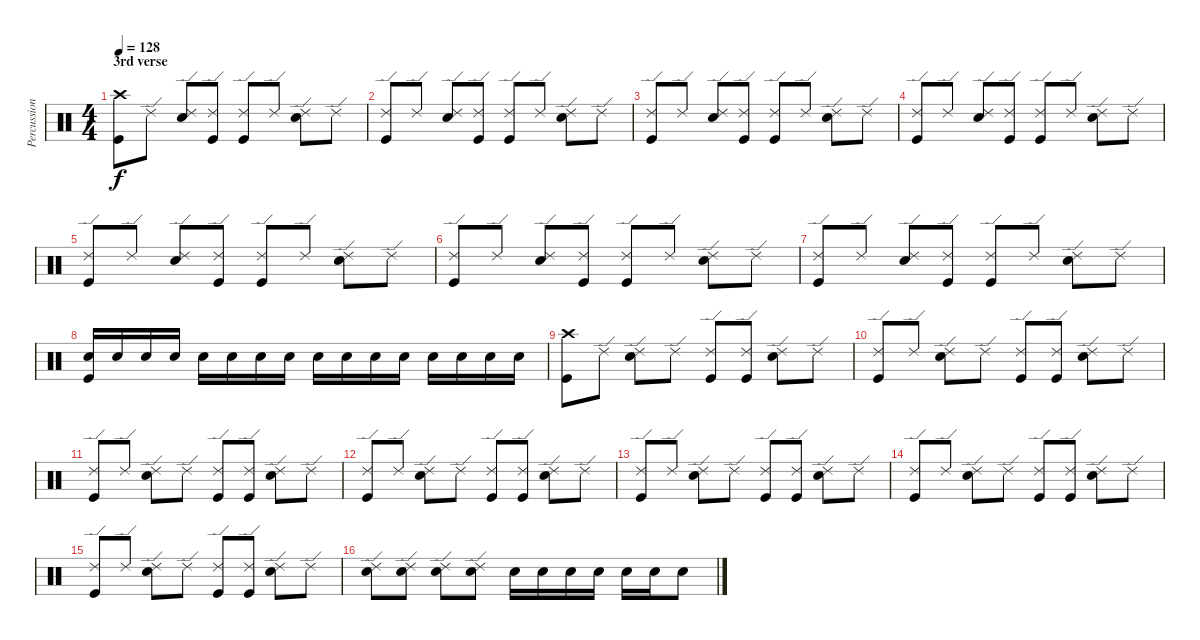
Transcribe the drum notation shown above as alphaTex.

\track ("Percussion" "Percussion") {instrument percussion}
\staff {score}
\articulation defaults
\ts (4 4)
\section ("" "3rd verse")
\tempo 128
\clef neutral
\ks c
("Crash high (hit)" "Kick (hit)").8{dy f} "Ride (edge) 2".8 ("Ride (edge) 2" "Snare (hit) 2").8 ("Ride (edge) 2" "Kick (hit)").8 ("Ride (edge) 2" "Kick (hit)").8 "Ride (edge) 2".8 ("Ride (edge) 2" "Snare (hit) 2").8 "Ride (edge) 2".8 |
("Ride (edge) 2" "Kick (hit)").8 "Ride (edge) 2".8 ("Ride (edge) 2" "Snare (hit) 2").8 ("Ride (edge) 2" "Kick (hit)").8 ("Ride (edge) 2" "Kick (hit)").8 "Ride (edge) 2".8 ("Ride (edge) 2" "Snare (hit) 2").8 "Ride (edge) 2".8 |
("Ride (edge) 2" "Kick (hit)").8 "Ride (edge) 2".8 ("Ride (edge) 2" "Snare (hit) 2").8 ("Ride (edge) 2" "Kick (hit)").8 ("Ride (edge) 2" "Kick (hit)").8 "Ride (edge) 2".8 ("Ride (edge) 2" "Snare (hit) 2").8 "Ride (edge) 2".8 |
("Ride (edge) 2" "Kick (hit)").8 "Ride (edge) 2".8 ("Ride (edge) 2" "Snare (hit) 2").8 ("Ride (edge) 2" "Kick (hit)").8 ("Ride (edge) 2" "Kick (hit)").8 "Ride (edge) 2".8 ("Ride (edge) 2" "Snare (hit) 2").8 "Ride (edge) 2".8 |
("Ride (edge) 2" "Kick (hit)").8 "Ride (edge) 2".8 ("Ride (edge) 2" "Snare (hit) 2").8 ("Ride (edge) 2" "Kick (hit)").8 ("Ride (edge) 2" "Kick (hit)").8 "Ride (edge) 2".8 ("Ride (edge) 2" "Snare (hit) 2").8 "Ride (edge) 2".8 |
("Ride (edge) 2" "Kick (hit)").8 "Ride (edge) 2".8 ("Ride (edge) 2" "Snare (hit) 2").8 ("Ride (edge) 2" "Kick (hit)").8 ("Ride (edge) 2" "Kick (hit)").8 "Ride (edge) 2".8 ("Ride (edge) 2" "Snare (hit) 2").8 "Ride (edge) 2".8 |
("Ride (edge) 2" "Kick (hit)").8 "Ride (edge) 2".8 ("Ride (edge) 2" "Snare (hit) 2").8 ("Ride (edge) 2" "Kick (hit)").8 ("Ride (edge) 2" "Kick (hit)").8 "Ride (edge) 2".8 ("Ride (edge) 2" "Snare (hit) 2").8 "Ride (edge) 2".8 |
("Snare (hit) 2" "Kick (hit)").16 "Snare (hit) 2".16 "Snare (hit) 2".16 "Snare (hit) 2".16 "Snare (hit) 2".16 "Snare (hit) 2".16 "Snare (hit) 2".16 "Snare (hit) 2".16 "Snare (hit) 2".16 "Snare (hit) 2".16 "Snare (hit) 2".16 "Snare (hit) 2".16 "Snare (hit) 2".16 "Snare (hit) 2".16 "Snare (hit) 2".16 "Snare (hit) 2".16 |
("Crash high (hit)" "Kick (hit)").8 "Ride (edge) 2".8 ("Ride (edge) 2" "Snare (hit) 2").8 "Ride (edge) 2".8 ("Ride (edge) 2" "Kick (hit)").8 ("Ride (edge) 2" "Kick (hit)").8 ("Ride (edge) 2" "Snare (hit) 2").8 "Ride (edge) 2".8 |
("Ride (edge) 2" "Kick (hit)").8 "Ride (edge) 2".8 ("Ride (edge) 2" "Snare (hit) 2").8 "Ride (edge) 2".8 ("Ride (edge) 2" "Kick (hit)").8 ("Ride (edge) 2" "Kick (hit)").8 ("Ride (edge) 2" "Snare (hit) 2").8 "Ride (edge) 2".8 |
("Ride (edge) 2" "Kick (hit)").8 "Ride (edge) 2".8 ("Ride (edge) 2" "Snare (hit) 2").8 "Ride (edge) 2".8 ("Ride (edge) 2" "Kick (hit)").8 ("Ride (edge) 2" "Kick (hit)").8 ("Ride (edge) 2" "Snare (hit) 2").8 "Ride (edge) 2".8 |
("Ride (edge) 2" "Kick (hit)").8 "Ride (edge) 2".8 ("Ride (edge) 2" "Snare (hit) 2").8 "Ride (edge) 2".8 ("Ride (edge) 2" "Kick (hit)").8 ("Ride (edge) 2" "Kick (hit)").8 ("Ride (edge) 2" "Snare (hit) 2").8 "Ride (edge) 2".8 |
("Ride (edge) 2" "Kick (hit)").8 "Ride (edge) 2".8 ("Ride (edge) 2" "Snare (hit) 2").8 "Ride (edge) 2".8 ("Ride (edge) 2" "Kick (hit)").8 ("Ride (edge) 2" "Kick (hit)").8 ("Ride (edge) 2" "Snare (hit) 2").8 "Ride (edge) 2".8 |
("Ride (edge) 2" "Kick (hit)").8 "Ride (edge) 2".8 ("Ride (edge) 2" "Snare (hit) 2").8 "Ride (edge) 2".8 ("Ride (edge) 2" "Kick (hit)").8 ("Ride (edge) 2" "Kick (hit)").8 ("Ride (edge) 2" "Snare (hit) 2").8 "Ride (edge) 2".8 |
("Ride (edge) 2" "Kick (hit)").8 "Ride (edge) 2".8 ("Ride (edge) 2" "Snare (hit) 2").8 "Ride (edge) 2".8 ("Ride (edge) 2" "Kick (hit)").8 ("Ride (edge) 2" "Kick (hit)").8 ("Ride (edge) 2" "Snare (hit) 2").8 "Ride (edge) 2".8 |
("Ride (edge) 2" "Snare (hit) 2").8 ("Ride (edge) 2" "Snare (hit) 2").8 ("Ride (edge) 2" "Snare (hit) 2").8 ("Ride (edge) 2" "Snare (hit) 2").8 "Snare (hit) 2".16 "Snare (hit) 2".16 "Snare (hit) 2".16 "Snare (hit) 2".16 "Snare (hit) 2".16 "Snare (hit) 2".16 "Snare (hit) 2".8
